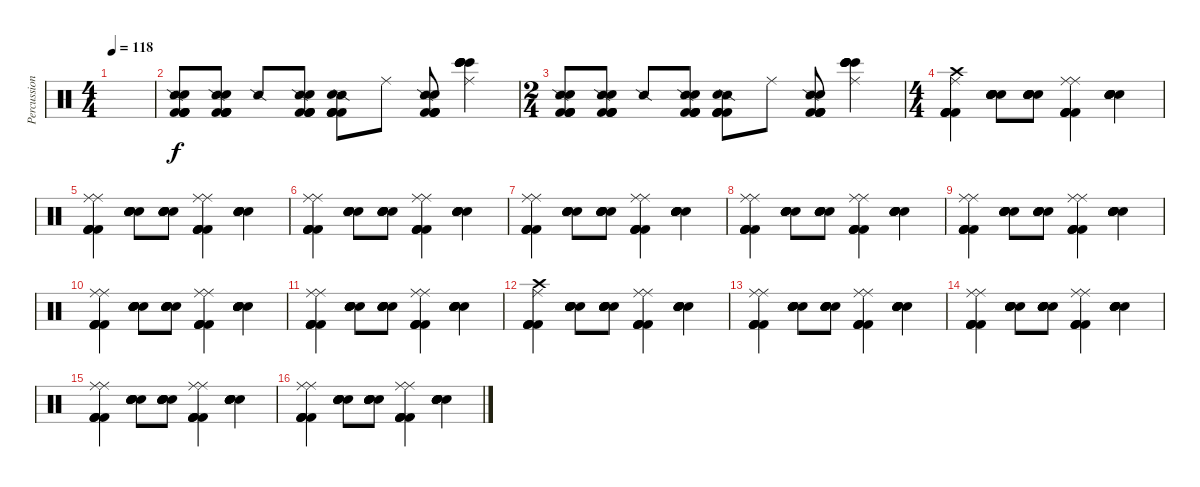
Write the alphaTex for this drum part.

\track ("Percussion" "Percussion") {instrument percussion}
\staff {score}
\articulation defaults
\ts (4 4)
\tempo 118
\clef neutral
\ks c
|
("Snare (side stick) 2" "Snare (hit) 2" "Kick (hit) 2" "Kick (hit) 2" "Kick (hit) 2" "Kick (hit) 2").8 ("Snare (side stick) 2" "Snare (hit) 2" "Kick (hit) 2" "Kick (hit) 2" "Kick (hit) 2" "Kick (hit) 2").8 "Snare (side stick) 2".8 ("Snare (side stick) 2" "Snare (hit) 2" "Kick (hit) 2" "Kick (hit) 2" "Kick (hit) 2" "Kick (hit) 2").8 ("Snare (side stick) 2" "Snare (hit) 2" "Kick (hit) 2" "Kick (hit) 2" "Kick (hit) 2" "Kick (hit) 2").8 "Ride (middle)".8 ("Snare (side stick) 2" "Snare (hit) 2" "Kick (hit) 2" "Kick (hit) 2" "Kick (hit) 2" "Kick (hit) 2").8 ("Bongo High (hit)" "Ride (middle)" "Bongo High (hit)" "Bongo High (hit)" "Bongo High (hit)" "Bongo High (hit)").4 |
\ts (2 4)
("Snare (side stick) 2" "Snare (hit) 2" "Kick (hit) 2" "Kick (hit) 2" "Kick (hit) 2" "Kick (hit) 2").8 ("Snare (side stick) 2" "Snare (hit) 2" "Kick (hit) 2" "Kick (hit) 2" "Kick (hit) 2" "Kick (hit) 2").8 "Snare (side stick) 2".8 ("Snare (side stick) 2" "Snare (hit) 2" "Kick (hit) 2" "Kick (hit) 2" "Kick (hit) 2" "Kick (hit) 2").8 ("Snare (side stick) 2" "Snare (hit) 2" "Kick (hit) 2" "Kick (hit) 2" "Kick (hit) 2" "Kick (hit) 2").8 "Ride (middle)".8 ("Snare (side stick) 2" "Snare (hit) 2" "Kick (hit) 2" "Kick (hit) 2" "Kick (hit) 2" "Kick (hit) 2").8 ("Bongo High (hit)" "Ride (middle)" "Bongo High (hit)" "Bongo High (hit)" "Bongo High (hit)" "Bongo High (hit)").4 |
\ts (4 4)
("Crash high (hit)" "Kick (hit) 2" "Kick (hit) 2" "Kick (hit) 2" "Kick (hit) 2" "Ride (middle)").4 ("Electric Snare (hit)" "Electric Snare (hit)" "Electric Snare (hit)" "Electric Snare (hit)" "Electric Snare (hit)" "Electric Snare (hit)").8 ("Electric Snare (hit)" "Electric Snare (hit)" "Electric Snare (hit)" "Electric Snare (hit)" "Electric Snare (hit)" "Electric Snare (hit)").8 ("Ride (middle)" "Kick (hit) 2" "Kick (hit) 2" "Kick (hit) 2" "Kick (hit) 2" "Ride (middle)").4 ("Electric Snare (hit)" "Electric Snare (hit)" "Electric Snare (hit)" "Electric Snare (hit)" "Electric Snare (hit)" "Electric Snare (hit)").4 |
("Ride (middle)" "Kick (hit) 2" "Kick (hit) 2" "Kick (hit) 2" "Kick (hit) 2" "Ride (middle)").4 ("Electric Snare (hit)" "Electric Snare (hit)" "Electric Snare (hit)" "Electric Snare (hit)" "Electric Snare (hit)" "Electric Snare (hit)").8 ("Electric Snare (hit)" "Electric Snare (hit)" "Electric Snare (hit)" "Electric Snare (hit)" "Electric Snare (hit)" "Electric Snare (hit)").8 ("Ride (middle)" "Kick (hit) 2" "Kick (hit) 2" "Kick (hit) 2" "Kick (hit) 2" "Ride (middle)").4 ("Electric Snare (hit)" "Electric Snare (hit)" "Electric Snare (hit)" "Electric Snare (hit)" "Electric Snare (hit)" "Electric Snare (hit)").4 |
("Ride (middle)" "Kick (hit) 2" "Kick (hit) 2" "Kick (hit) 2" "Kick (hit) 2" "Ride (middle)").4 ("Electric Snare (hit)" "Electric Snare (hit)" "Electric Snare (hit)" "Electric Snare (hit)" "Electric Snare (hit)" "Electric Snare (hit)").8 ("Electric Snare (hit)" "Electric Snare (hit)" "Electric Snare (hit)" "Electric Snare (hit)" "Electric Snare (hit)" "Electric Snare (hit)").8 ("Ride (middle)" "Kick (hit) 2" "Kick (hit) 2" "Kick (hit) 2" "Kick (hit) 2" "Ride (middle)").4 ("Electric Snare (hit)" "Electric Snare (hit)" "Electric Snare (hit)" "Electric Snare (hit)" "Electric Snare (hit)" "Electric Snare (hit)").4 |
("Ride (middle)" "Kick (hit) 2" "Kick (hit) 2" "Kick (hit) 2" "Kick (hit) 2" "Ride (middle)").4 ("Electric Snare (hit)" "Electric Snare (hit)" "Electric Snare (hit)" "Electric Snare (hit)" "Electric Snare (hit)" "Electric Snare (hit)").8 ("Electric Snare (hit)" "Electric Snare (hit)" "Electric Snare (hit)" "Electric Snare (hit)" "Electric Snare (hit)" "Electric Snare (hit)").8 ("Ride (middle)" "Kick (hit) 2" "Kick (hit) 2" "Kick (hit) 2" "Kick (hit) 2" "Ride (middle)").4 ("Electric Snare (hit)" "Electric Snare (hit)" "Electric Snare (hit)" "Electric Snare (hit)" "Electric Snare (hit)" "Electric Snare (hit)").4 |
("Ride (middle)" "Kick (hit) 2" "Kick (hit) 2" "Kick (hit) 2" "Kick (hit) 2" "Ride (middle)").4 ("Electric Snare (hit)" "Electric Snare (hit)" "Electric Snare (hit)" "Electric Snare (hit)" "Electric Snare (hit)" "Electric Snare (hit)").8 ("Electric Snare (hit)" "Electric Snare (hit)" "Electric Snare (hit)" "Electric Snare (hit)" "Electric Snare (hit)" "Electric Snare (hit)").8 ("Ride (middle)" "Kick (hit) 2" "Kick (hit) 2" "Kick (hit) 2" "Kick (hit) 2" "Ride (middle)").4 ("Electric Snare (hit)" "Electric Snare (hit)" "Electric Snare (hit)" "Electric Snare (hit)" "Electric Snare (hit)" "Electric Snare (hit)").4 |
("Ride (middle)" "Kick (hit) 2" "Kick (hit) 2" "Kick (hit) 2" "Kick (hit) 2" "Ride (middle)").4 ("Electric Snare (hit)" "Electric Snare (hit)" "Electric Snare (hit)" "Electric Snare (hit)" "Electric Snare (hit)" "Electric Snare (hit)").8 ("Electric Snare (hit)" "Electric Snare (hit)" "Electric Snare (hit)" "Electric Snare (hit)" "Electric Snare (hit)" "Electric Snare (hit)").8 ("Ride (middle)" "Kick (hit) 2" "Kick (hit) 2" "Kick (hit) 2" "Kick (hit) 2" "Ride (middle)").4 ("Electric Snare (hit)" "Electric Snare (hit)" "Electric Snare (hit)" "Electric Snare (hit)" "Electric Snare (hit)" "Electric Snare (hit)").4 |
("Ride (middle)" "Kick (hit) 2" "Kick (hit) 2" "Kick (hit) 2" "Kick (hit) 2" "Ride (middle)").4 ("Electric Snare (hit)" "Electric Snare (hit)" "Electric Snare (hit)" "Electric Snare (hit)" "Electric Snare (hit)" "Electric Snare (hit)").8 ("Electric Snare (hit)" "Electric Snare (hit)" "Electric Snare (hit)" "Electric Snare (hit)" "Electric Snare (hit)" "Electric Snare (hit)").8 ("Ride (middle)" "Kick (hit) 2" "Kick (hit) 2" "Kick (hit) 2" "Kick (hit) 2" "Ride (middle)").4 ("Electric Snare (hit)" "Electric Snare (hit)" "Electric Snare (hit)" "Electric Snare (hit)" "Electric Snare (hit)" "Electric Snare (hit)").4 |
("Ride (middle)" "Kick (hit) 2" "Kick (hit) 2" "Kick (hit) 2" "Kick (hit) 2" "Ride (middle)").4 ("Electric Snare (hit)" "Electric Snare (hit)" "Electric Snare (hit)" "Electric Snare (hit)" "Electric Snare (hit)" "Electric Snare (hit)").8 ("Electric Snare (hit)" "Electric Snare (hit)" "Electric Snare (hit)" "Electric Snare (hit)" "Electric Snare (hit)" "Electric Snare (hit)").8 ("Ride (middle)" "Kick (hit) 2" "Kick (hit) 2" "Kick (hit) 2" "Kick (hit) 2" "Ride (middle)").4 ("Electric Snare (hit)" "Electric Snare (hit)" "Electric Snare (hit)" "Electric Snare (hit)" "Electric Snare (hit)" "Electric Snare (hit)").4 |
("Crash high (hit)" "Kick (hit) 2" "Kick (hit) 2" "Kick (hit) 2" "Kick (hit) 2" "Ride (middle)").4 ("Electric Snare (hit)" "Electric Snare (hit)" "Electric Snare (hit)" "Electric Snare (hit)" "Electric Snare (hit)" "Electric Snare (hit)").8 ("Electric Snare (hit)" "Electric Snare (hit)" "Electric Snare (hit)" "Electric Snare (hit)" "Electric Snare (hit)" "Electric Snare (hit)").8 ("Ride (middle)" "Kick (hit) 2" "Kick (hit) 2" "Kick (hit) 2" "Kick (hit) 2" "Ride (middle)").4 ("Electric Snare (hit)" "Electric Snare (hit)" "Electric Snare (hit)" "Electric Snare (hit)" "Electric Snare (hit)" "Electric Snare (hit)").4 |
("Ride (middle)" "Kick (hit) 2" "Kick (hit) 2" "Kick (hit) 2" "Kick (hit) 2" "Ride (middle)").4 ("Electric Snare (hit)" "Electric Snare (hit)" "Electric Snare (hit)" "Electric Snare (hit)" "Electric Snare (hit)" "Electric Snare (hit)").8 ("Electric Snare (hit)" "Electric Snare (hit)" "Electric Snare (hit)" "Electric Snare (hit)" "Electric Snare (hit)" "Electric Snare (hit)").8 ("Ride (middle)" "Kick (hit) 2" "Kick (hit) 2" "Kick (hit) 2" "Kick (hit) 2" "Ride (middle)").4 ("Electric Snare (hit)" "Electric Snare (hit)" "Electric Snare (hit)" "Electric Snare (hit)" "Electric Snare (hit)" "Electric Snare (hit)").4 |
("Ride (middle)" "Kick (hit) 2" "Kick (hit) 2" "Kick (hit) 2" "Kick (hit) 2" "Ride (middle)").4 ("Electric Snare (hit)" "Electric Snare (hit)" "Electric Snare (hit)" "Electric Snare (hit)" "Electric Snare (hit)" "Electric Snare (hit)").8 ("Electric Snare (hit)" "Electric Snare (hit)" "Electric Snare (hit)" "Electric Snare (hit)" "Electric Snare (hit)" "Electric Snare (hit)").8 ("Ride (middle)" "Kick (hit) 2" "Kick (hit) 2" "Kick (hit) 2" "Kick (hit) 2" "Ride (middle)").4 ("Electric Snare (hit)" "Electric Snare (hit)" "Electric Snare (hit)" "Electric Snare (hit)" "Electric Snare (hit)" "Electric Snare (hit)").4 |
("Ride (middle)" "Kick (hit) 2" "Kick (hit) 2" "Kick (hit) 2" "Kick (hit) 2" "Ride (middle)").4 ("Electric Snare (hit)" "Electric Snare (hit)" "Electric Snare (hit)" "Electric Snare (hit)" "Electric Snare (hit)" "Electric Snare (hit)").8 ("Electric Snare (hit)" "Electric Snare (hit)" "Electric Snare (hit)" "Electric Snare (hit)" "Electric Snare (hit)" "Electric Snare (hit)").8 ("Ride (middle)" "Kick (hit) 2" "Kick (hit) 2" "Kick (hit) 2" "Kick (hit) 2" "Ride (middle)").4 ("Electric Snare (hit)" "Electric Snare (hit)" "Electric Snare (hit)" "Electric Snare (hit)" "Electric Snare (hit)" "Electric Snare (hit)").4 |
("Ride (middle)" "Kick (hit) 2" "Kick (hit) 2" "Kick (hit) 2" "Kick (hit) 2" "Ride (middle)").4 ("Electric Snare (hit)" "Electric Snare (hit)" "Electric Snare (hit)" "Electric Snare (hit)" "Electric Snare (hit)" "Electric Snare (hit)").8 ("Electric Snare (hit)" "Electric Snare (hit)" "Electric Snare (hit)" "Electric Snare (hit)" "Electric Snare (hit)" "Electric Snare (hit)").8 ("Ride (middle)" "Kick (hit) 2" "Kick (hit) 2" "Kick (hit) 2" "Kick (hit) 2" "Ride (middle)").4 ("Electric Snare (hit)" "Electric Snare (hit)" "Electric Snare (hit)" "Electric Snare (hit)" "Electric Snare (hit)" "Electric Snare (hit)").4
